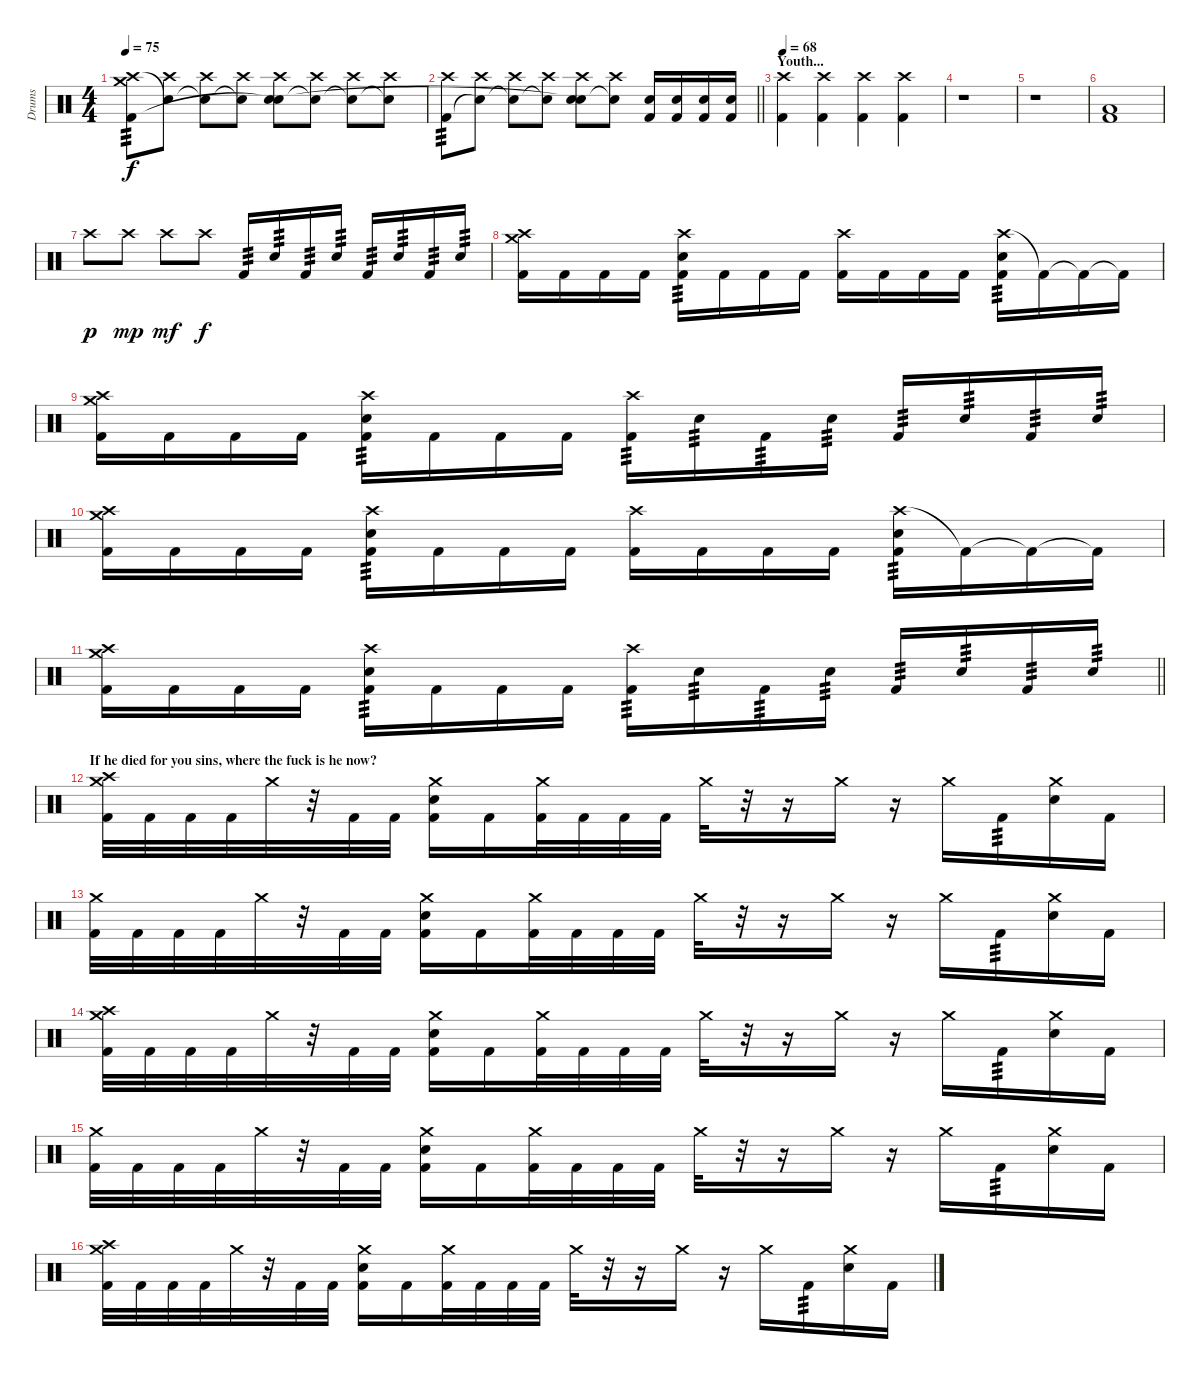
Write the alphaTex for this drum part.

\track ("Drums" "Drums") {instrument percussion}
\staff {score}
\articulation defaults
\ts (4 4)
\tempo 75
\clef neutral
\ks c
("Crash medium (hit)" "Crash high (hit)" "Kick (hit) 2").8{tp 3 dy f} ("Crash high (hit)" "Snare (hit)"{t}).8 ("Crash high (hit)" "Snare (hit)"{t}).8 ("Crash high (hit)" "Snare (hit)"{t}).8 ("Crash high (hit)" "Electric Snare (hit)" "Snare (hit)"{t}).8 ("Crash high (hit)" "Snare (hit)"{t}).8 ("Crash high (hit)" "Snare (hit)"{t}).8 ("Crash high (hit)" "Snare (hit)"{t}).8 |
\barLineRight lightlight
("Crash high (hit)" "Kick (hit) 2").8{tp 3} ("Crash high (hit)" "Snare (hit)"{t}).8 ("Crash high (hit)" "Snare (hit)"{t}).8 ("Crash high (hit)" "Snare (hit)"{t}).8 ("Crash high (hit)" "Electric Snare (hit)" "Snare (hit)"{t}).8 ("Crash high (hit)" "Snare (hit)"{t}).8 ("Electric Snare (hit)" "Kick (hit) 2").16 ("Electric Snare (hit)" "Kick (hit) 2").16 ("Electric Snare (hit)" "Kick (hit) 2").16 ("Electric Snare (hit)" "Kick (hit) 2").16 |
\section ("" "Youth...")
\tempo 68
("Crash high (hit)" "Kick (hit) 2").4 ("Crash high (hit)" "Kick (hit) 2").4 ("Crash high (hit)" "Kick (hit) 2").4 ("Crash high (hit)" "Kick (hit) 2").4 |
r.1 |
r.1 |
("Low Floor Tom (hit)" "Kick (hit) 2").1 |
"Crash high (hit)".8{dy p} "Crash high (hit)".8{dy mp} "Crash high (hit)".8{dy mf} "Crash high (hit)".8{dy f} "Kick (hit) 2".16{tp 3} "Electric Snare (hit)".16{tp 3} "Kick (hit) 2".16{tp 3} "Electric Snare (hit)".16{tp 3} "Kick (hit) 2".16{tp 3} "Electric Snare (hit)".16{tp 3} "Kick (hit) 2".16{tp 3} "Electric Snare (hit)".16{tp 3} |
("Crash medium (hit)" "Crash high (hit)" "Kick (hit) 2").16 "Kick (hit) 2".16 "Kick (hit) 2".16 "Kick (hit) 2".16 ("Crash high (hit)" "Electric Snare (hit)" "Kick (hit) 2").16{tp 3} "Kick (hit) 2".16 "Kick (hit) 2".16 "Kick (hit) 2".16 ("Crash high (hit)" "Kick (hit) 2").16 "Kick (hit) 2".16 "Kick (hit) 2".16 "Kick (hit) 2".16 ("Crash high (hit)" "Electric Snare (hit)" "Kick (hit) 2").16{tp 3} "Kick (hit) 2"{t}.16 "Kick (hit) 2"{t}.16 "Kick (hit) 2"{t}.16 |
("Crash medium (hit)" "Crash high (hit)" "Kick (hit) 2").16 "Kick (hit) 2".16 "Kick (hit) 2".16 "Kick (hit) 2".16 ("Crash high (hit)" "Electric Snare (hit)" "Kick (hit) 2").16{tp 3} "Kick (hit) 2".16 "Kick (hit) 2".16 "Kick (hit) 2".16 ("Crash high (hit)" "Kick (hit) 2").16{tp 3} "Electric Snare (hit)".16{tp 3} "Kick (hit) 2".16{tp 3} "Electric Snare (hit)".16{tp 3} "Kick (hit) 2".16{tp 3} "Electric Snare (hit)".16{tp 3} "Kick (hit) 2".16{tp 3} "Electric Snare (hit)".16{tp 3} |
("Crash medium (hit)" "Crash high (hit)" "Kick (hit) 2").16 "Kick (hit) 2".16 "Kick (hit) 2".16 "Kick (hit) 2".16 ("Crash high (hit)" "Electric Snare (hit)" "Kick (hit) 2").16{tp 3} "Kick (hit) 2".16 "Kick (hit) 2".16 "Kick (hit) 2".16 ("Crash high (hit)" "Kick (hit) 2").16 "Kick (hit) 2".16 "Kick (hit) 2".16 "Kick (hit) 2".16 ("Crash high (hit)" "Electric Snare (hit)" "Kick (hit) 2").16{tp 3} "Kick (hit) 2"{t}.16 "Kick (hit) 2"{t}.16 "Kick (hit) 2"{t}.16 |
\barLineRight lightlight
("Crash medium (hit)" "Crash high (hit)" "Kick (hit) 2").16 "Kick (hit) 2".16 "Kick (hit) 2".16 "Kick (hit) 2".16 ("Crash high (hit)" "Electric Snare (hit)" "Kick (hit) 2").16{tp 3} "Kick (hit) 2".16 "Kick (hit) 2".16 "Kick (hit) 2".16 ("Crash high (hit)" "Kick (hit) 2").16{tp 3} "Electric Snare (hit)".16{tp 3} "Kick (hit) 2".16{tp 3} "Electric Snare (hit)".16{tp 3} "Kick (hit) 2".16{tp 3} "Electric Snare (hit)".16{tp 3} "Kick (hit) 2".16{tp 3} "Electric Snare (hit)".16{tp 3} |
\section ("" "If he died for you sins, where the fuck is he now?")
("Crash medium (hit)" "Crash high (hit)" "Kick (hit) 2").32 "Kick (hit) 2".32 "Kick (hit) 2".32 "Kick (hit) 2".32 "Crash medium (hit)".32 r.32 "Kick (hit) 2".32 "Kick (hit) 2".32 ("Crash medium (hit)" "Electric Snare (hit)" "Kick (hit) 2").16 "Kick (hit) 2".16 ("Crash medium (hit)" "Kick (hit) 2").32 "Kick (hit) 2".32 "Kick (hit) 2".32 "Kick (hit) 2".32 "Crash medium (hit)".32 r.32 r.16 "Crash medium (hit)".16 r.16 "Crash medium (hit)".16 "Kick (hit) 2".16{tp 3} ("Crash medium (hit)" "Electric Snare (hit)").16 "Kick (hit) 2".16 |
("Crash medium (hit)" "Kick (hit) 2").32 "Kick (hit) 2".32 "Kick (hit) 2".32 "Kick (hit) 2".32 "Crash medium (hit)".32 r.32 "Kick (hit) 2".32 "Kick (hit) 2".32 ("Crash medium (hit)" "Electric Snare (hit)" "Kick (hit) 2").16 "Kick (hit) 2".16 ("Crash medium (hit)" "Kick (hit) 2").32 "Kick (hit) 2".32 "Kick (hit) 2".32 "Kick (hit) 2".32 "Crash medium (hit)".32 r.32 r.16 "Crash medium (hit)".16 r.16 "Crash medium (hit)".16 "Kick (hit) 2".16{tp 3} ("Crash medium (hit)" "Electric Snare (hit)").16 "Kick (hit) 2".16 |
("Crash medium (hit)" "Crash high (hit)" "Kick (hit) 2").32 "Kick (hit) 2".32 "Kick (hit) 2".32 "Kick (hit) 2".32 "Crash medium (hit)".32 r.32 "Kick (hit) 2".32 "Kick (hit) 2".32 ("Crash medium (hit)" "Electric Snare (hit)" "Kick (hit) 2").16 "Kick (hit) 2".16 ("Crash medium (hit)" "Kick (hit) 2").32 "Kick (hit) 2".32 "Kick (hit) 2".32 "Kick (hit) 2".32 "Crash medium (hit)".32 r.32 r.16 "Crash medium (hit)".16 r.16 "Crash medium (hit)".16 "Kick (hit) 2".16{tp 3} ("Crash medium (hit)" "Electric Snare (hit)").16 "Kick (hit) 2".16 |
("Crash medium (hit)" "Kick (hit) 2").32 "Kick (hit) 2".32 "Kick (hit) 2".32 "Kick (hit) 2".32 "Crash medium (hit)".32 r.32 "Kick (hit) 2".32 "Kick (hit) 2".32 ("Crash medium (hit)" "Electric Snare (hit)" "Kick (hit) 2").16 "Kick (hit) 2".16 ("Crash medium (hit)" "Kick (hit) 2").32 "Kick (hit) 2".32 "Kick (hit) 2".32 "Kick (hit) 2".32 "Crash medium (hit)".32 r.32 r.16 "Crash medium (hit)".16 r.16 "Crash medium (hit)".16 "Kick (hit) 2".16{tp 3} ("Crash medium (hit)" "Electric Snare (hit)").16 "Kick (hit) 2".16 |
("Crash medium (hit)" "Crash high (hit)" "Kick (hit) 2").32 "Kick (hit) 2".32 "Kick (hit) 2".32 "Kick (hit) 2".32 "Crash medium (hit)".32 r.32 "Kick (hit) 2".32 "Kick (hit) 2".32 ("Crash medium (hit)" "Electric Snare (hit)" "Kick (hit) 2").16 "Kick (hit) 2".16 ("Crash medium (hit)" "Kick (hit) 2").32 "Kick (hit) 2".32 "Kick (hit) 2".32 "Kick (hit) 2".32 "Crash medium (hit)".32 r.32 r.16 "Crash medium (hit)".16 r.16 "Crash medium (hit)".16 "Kick (hit) 2".16{tp 3} ("Crash medium (hit)" "Electric Snare (hit)").16 "Kick (hit) 2".16
